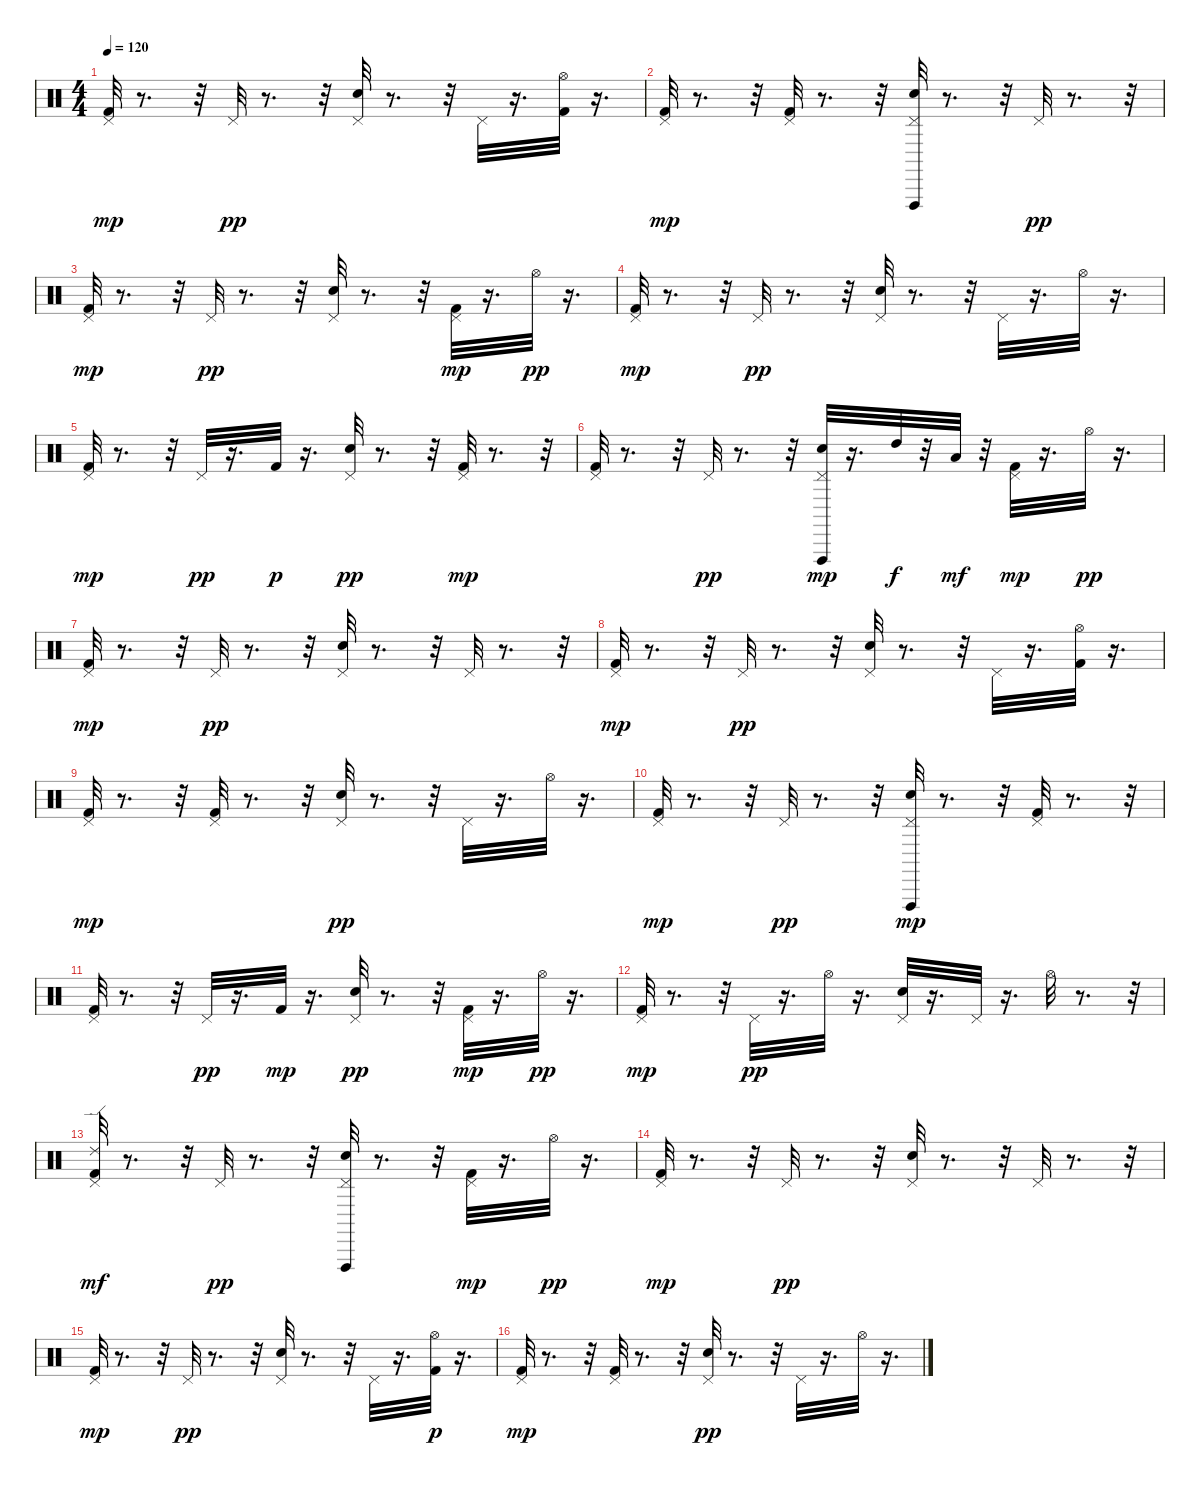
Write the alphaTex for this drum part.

\track "" {instrument percussion}
\staff {score}
\articulation defaults
\ts (4 4)
\tempo 120
\clef neutral
\ks c
("Pedal Hi-Hat (hit)" "Kick (hit) 2").32{dy mp} r.8{d} r.32 "Pedal Hi-Hat (hit)".32{dy pp} r.8{d} r.32 ("Pedal Hi-Hat (hit)" "Snare (hit) 2").32 r.8{d} r.32 "Pedal Hi-Hat (hit)".32 r.16{d} ("Kick (hit) 2" "Hi-Hat (open)").32 r.16{d} |
("Pedal Hi-Hat (hit)" "Kick (hit) 2").32{dy mp} r.8{d} r.32 ("Pedal Hi-Hat (hit)" "Kick (hit) 2").32 r.8{d} r.32 ("Pedal Hi-Hat (hit)" "Vibraslap (hit)" "Snare (hit) 2").32 r.8{d} r.32 "Pedal Hi-Hat (hit)".32{dy pp} r.8{d} r.32 |
("Pedal Hi-Hat (hit)" "Kick (hit) 2").32{dy mp} r.8{d} r.32 "Pedal Hi-Hat (hit)".32{dy pp} r.8{d} r.32 ("Pedal Hi-Hat (hit)" "Snare (hit) 2").32 r.8{d} r.32 ("Pedal Hi-Hat (hit)" "Kick (hit) 2").32{dy mp} r.16{d} "Hi-Hat (open)".32{dy pp} r.16{d} |
("Pedal Hi-Hat (hit)" "Kick (hit) 2").32{dy mp} r.8{d} r.32 "Pedal Hi-Hat (hit)".32{dy pp} r.8{d} r.32 ("Pedal Hi-Hat (hit)" "Snare (hit) 2").32 r.8{d} r.32 "Pedal Hi-Hat (hit)".32 r.16{d} "Hi-Hat (open)".32 r.16{d} |
("Pedal Hi-Hat (hit)" "Kick (hit) 2").32{dy mp} r.8{d} r.32 "Pedal Hi-Hat (hit)".32{dy pp} r.16{d} "Kick (hit) 2".32{dy p} r.16{d} ("Pedal Hi-Hat (hit)" "Snare (hit) 2").32{dy pp} r.8{d} r.32 ("Pedal Hi-Hat (hit)" "Kick (hit) 2").32{dy mp} r.8{d} r.32 |
("Pedal Hi-Hat (hit)" "Kick (hit) 2").32 r.8{d} r.32 "Pedal Hi-Hat (hit)".32{dy pp} r.8{d} r.32 ("Pedal Hi-Hat (hit)" "Vibraslap (hit)" "Snare (hit) 2").32{dy mp} r.16{d} "High Tom (hit)".32{dy f} r.32 "Low Tom (hit)".32{dy mf} r.32 ("Pedal Hi-Hat (hit)" "Kick (hit) 2").32{dy mp} r.16{d} "Hi-Hat (open)".32{dy pp} r.16{d} |
("Pedal Hi-Hat (hit)" "Kick (hit) 2").32{dy mp} r.8{d} r.32 "Pedal Hi-Hat (hit)".32{dy pp} r.8{d} r.32 ("Pedal Hi-Hat (hit)" "Snare (hit) 2").32 r.8{d} r.32 "Pedal Hi-Hat (hit)".32 r.8{d} r.32 |
("Pedal Hi-Hat (hit)" "Kick (hit) 2").32{dy mp} r.8{d} r.32 "Pedal Hi-Hat (hit)".32{dy pp} r.8{d} r.32 ("Pedal Hi-Hat (hit)" "Snare (hit) 2").32 r.8{d} r.32 "Pedal Hi-Hat (hit)".32 r.16{d} ("Kick (hit) 2" "Hi-Hat (open)").32 r.16{d} |
("Pedal Hi-Hat (hit)" "Kick (hit) 2").32{dy mp} r.8{d} r.32 ("Pedal Hi-Hat (hit)" "Kick (hit) 2").32 r.8{d} r.32 ("Pedal Hi-Hat (hit)" "Snare (hit) 2").32{dy pp} r.8{d} r.32 "Pedal Hi-Hat (hit)".32 r.16{d} "Hi-Hat (open)".32 r.16{d} |
("Pedal Hi-Hat (hit)" "Kick (hit) 2").32{dy mp} r.8{d} r.32 "Pedal Hi-Hat (hit)".32{dy pp} r.8{d} r.32 ("Pedal Hi-Hat (hit)" "Vibraslap (hit)" "Snare (hit) 2").32{dy mp} r.8{d} r.32 ("Pedal Hi-Hat (hit)" "Kick (hit) 2").32 r.8{d} r.32 |
("Pedal Hi-Hat (hit)" "Kick (hit) 2").32 r.8{d} r.32 "Pedal Hi-Hat (hit)".32{dy pp} r.16{d} "Kick (hit) 2".32{dy mp} r.16{d} ("Pedal Hi-Hat (hit)" "Snare (hit) 2").32{dy pp} r.8{d} r.32 ("Pedal Hi-Hat (hit)" "Kick (hit) 2").32{dy mp} r.16{d} "Hi-Hat (open)".32{dy pp} r.16{d} |
("Pedal Hi-Hat (hit)" "Kick (hit) 2").32{dy mp} r.8{d} r.32 "Pedal Hi-Hat (hit)".32{dy pp} r.16{d} "Hi-Hat (open)".32 r.16{d} ("Pedal Hi-Hat (hit)" "Snare (hit) 2").32 r.16{d} "Pedal Hi-Hat (hit)".32 r.16{d} "Hi-Hat (open)".32 r.8{d} r.32 |
("Pedal Hi-Hat (hit)" "Kick (hit) 2" "Ride (edge) 2").32{dy mf} r.8{d} r.32 "Pedal Hi-Hat (hit)".32{dy pp} r.8{d} r.32 ("Vibraslap (hit)" "Pedal Hi-Hat (hit)" "Snare (hit) 2").32 r.8{d} r.32 ("Pedal Hi-Hat (hit)" "Kick (hit) 2").32{dy mp} r.16{d} "Hi-Hat (open)".32{dy pp} r.16{d} |
("Pedal Hi-Hat (hit)" "Kick (hit) 2").32{dy mp} r.8{d} r.32 "Pedal Hi-Hat (hit)".32{dy pp} r.8{d} r.32 ("Pedal Hi-Hat (hit)" "Snare (hit) 2").32 r.8{d} r.32 "Pedal Hi-Hat (hit)".32 r.8{d} r.32 |
("Pedal Hi-Hat (hit)" "Kick (hit) 2").32{dy mp} r.8{d} r.32 "Pedal Hi-Hat (hit)".32{dy pp} r.8{d} r.32 ("Pedal Hi-Hat (hit)" "Snare (hit) 2").32 r.8{d} r.32 "Pedal Hi-Hat (hit)".32 r.16{d} ("Hi-Hat (open)" "Kick (hit) 2").32{dy p} r.16{d} |
("Pedal Hi-Hat (hit)" "Kick (hit) 2").32{dy mp} r.8{d} r.32 ("Pedal Hi-Hat (hit)" "Kick (hit) 2").32 r.8{d} r.32 ("Pedal Hi-Hat (hit)" "Snare (hit) 2").32{dy pp} r.8{d} r.32 "Pedal Hi-Hat (hit)".32 r.16{d} "Hi-Hat (open)".32 r.16{d}
